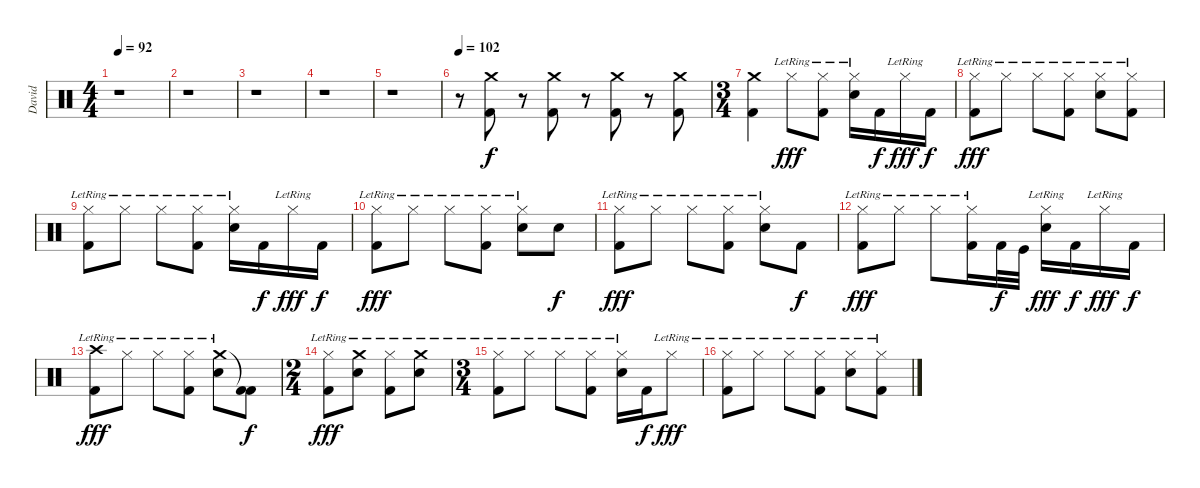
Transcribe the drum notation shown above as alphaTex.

\track ("David" "David") {instrument percussion}
\staff {score}
\articulation defaults
\ts (4 4)
\tempo 92
\clef neutral
\ks c
r.1{dy f} |
r.1 |
r.1 |
r.1 |
r.1 |
\tempo 102
r.8 ("Kick (hit) 2" "Crash medium (hit)").8 r.8 ("Kick (hit) 2" "Crash medium (hit)").8 r.8 ("Kick (hit) 2" "Crash medium (hit)").8 r.8 ("Kick (hit) 2" "Crash medium (hit)").8 |
\ts (3 4)
("Crash medium (hit)" "Kick (hit) 2").4 "Hi-Hat (closed)"{lr}.8{dy fff} ("Hi-Hat (closed)"{lr} "Kick (hit) 2").8 ("Hi-Hat (closed)"{lr} "Snare (hit) 2").16 "Kick (hit) 2".16{dy f} "Hi-Hat (closed)"{lr}.16{dy fff} "Kick (hit) 2".16{dy f} |
("Hi-Hat (closed)"{lr} "Kick (hit) 2").8{dy fff} "Hi-Hat (closed)"{lr}.8 "Hi-Hat (closed)"{lr}.8 ("Hi-Hat (closed)"{lr} "Kick (hit) 2").8 ("Hi-Hat (closed)"{lr} "Snare (hit) 2").8 ("Hi-Hat (closed)"{lr} "Kick (hit) 2").8 |
("Hi-Hat (closed)"{lr} "Kick (hit) 2").8 "Hi-Hat (closed)"{lr}.8 "Hi-Hat (closed)"{lr}.8 ("Hi-Hat (closed)"{lr} "Kick (hit) 2").8 ("Hi-Hat (closed)"{lr} "Snare (hit) 2").16 "Kick (hit) 2".16{dy f} "Hi-Hat (closed)"{lr}.16{dy fff} "Kick (hit) 2".16{dy f} |
("Hi-Hat (closed)"{lr} "Kick (hit) 2").8{dy fff} "Hi-Hat (closed)"{lr}.8 "Hi-Hat (closed)"{lr}.8 ("Hi-Hat (closed)"{lr} "Kick (hit) 2").8 ("Hi-Hat (closed)"{lr} "Snare (hit) 2").8 "Snare (hit) 2".8{dy f} |
("Hi-Hat (closed)"{lr} "Kick (hit) 2").8{dy fff} "Hi-Hat (closed)"{lr}.8 "Hi-Hat (closed)"{lr}.8 ("Hi-Hat (closed)"{lr} "Kick (hit) 2").8 ("Hi-Hat (closed)"{lr} "Snare (hit) 2").8 "Kick (hit) 2".8{dy f} |
("Hi-Hat (closed)"{lr} "Kick (hit) 2").8{dy fff} "Hi-Hat (closed)"{lr}.8 "Hi-Hat (closed)"{lr}.8 ("Hi-Hat (closed)"{lr} "Kick (hit) 2").16 "Kick (hit) 2".32{dy f} "Kick (hit)".32 ("Hi-Hat (closed)"{lr} "Snare (hit) 2").16{dy fff} "Kick (hit) 2".16{dy f} "Hi-Hat (closed)"{lr}.16{dy fff} "Kick (hit) 2".16{dy f} |
("Crash high (hit)"{lr} "Kick (hit) 2").8{dy fff} "Hi-Hat (closed)"{lr}.8 "Hi-Hat (closed)"{lr}.8 ("Hi-Hat (closed)"{lr} "Kick (hit) 2").8 ("Crash medium (hit)"{lr} "Snare (hit) 2").8 ("Kick (hit) 2"{t} "Kick (hit) 2").8{dy f} |
\ts (2 4)
("Hi-Hat (closed)"{lr} "Kick (hit) 2").8{dy fff} ("Crash medium (hit)"{lr} "Snare (hit) 2").8 ("Hi-Hat (closed)"{lr} "Kick (hit) 2").8 ("Crash medium (hit)"{lr} "Snare (hit) 2").8 |
\ts (3 4)
("Hi-Hat (closed)"{lr} "Kick (hit) 2").8 "Hi-Hat (closed)"{lr}.8 "Hi-Hat (closed)"{lr}.8 ("Hi-Hat (closed)"{lr} "Kick (hit) 2").8 ("Hi-Hat (closed)"{lr} "Snare (hit) 2").16 "Kick (hit) 2".16{dy f} "Hi-Hat (closed)"{lr}.8{dy fff} |
("Hi-Hat (closed)"{lr} "Kick (hit) 2").8 "Hi-Hat (closed)"{lr}.8 "Hi-Hat (closed)"{lr}.8 ("Hi-Hat (closed)"{lr} "Kick (hit) 2").8 ("Hi-Hat (closed)"{lr} "Snare (hit) 2").8 ("Hi-Hat (closed)"{lr} "Kick (hit) 2").8
